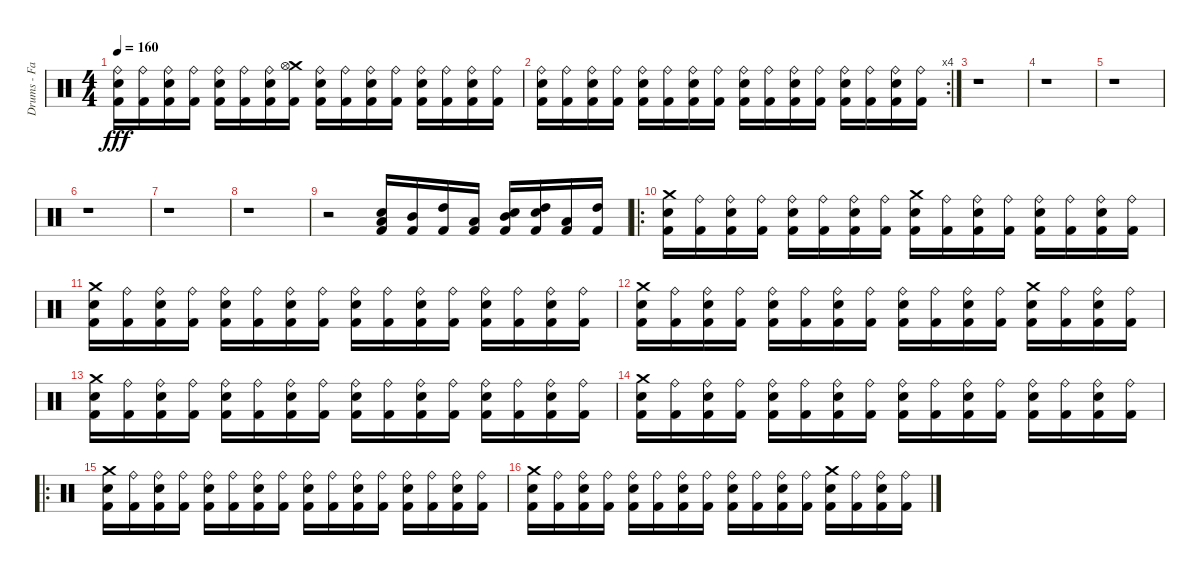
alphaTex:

\track ("Drums - Faust" "Drums - Fa") {instrument percussion}
\staff {score}
\articulation defaults
\ts (4 4)
\tempo 160
\clef neutral
\ks c
("Ride (bell)" "Electric Snare (hit)" "Kick (hit) 2").16{dy fff} ("Ride (bell)" "Kick (hit) 2").16 ("Ride (bell)" "Electric Snare (hit)" "Kick (hit) 2").16 ("Ride (bell)" "Kick (hit) 2").16 ("Ride (bell)" "Electric Snare (hit)" "Kick (hit) 2").16 ("Ride (bell)" "Kick (hit) 2").16 ("Ride (bell)" "Electric Snare (hit)" "Kick (hit) 2").16 ("Crash medium (hit)" "Hi-Hat (open)" "Kick (hit) 2").16 ("Ride (bell)" "Electric Snare (hit)" "Kick (hit) 2").16 ("Ride (bell)" "Kick (hit) 2").16 ("Ride (bell)" "Electric Snare (hit)" "Kick (hit) 2").16 ("Ride (bell)" "Kick (hit) 2").16 ("Ride (bell)" "Electric Snare (hit)" "Kick (hit) 2").16 ("Ride (bell)" "Kick (hit) 2").16 ("Ride (bell)" "Electric Snare (hit)" "Kick (hit) 2").16 ("Ride (bell)" "Kick (hit) 2").16 |
\rc 4
("Ride (bell)" "Electric Snare (hit)" "Kick (hit) 2").16 ("Ride (bell)" "Kick (hit) 2").16 ("Ride (bell)" "Electric Snare (hit)" "Kick (hit) 2").16 ("Ride (bell)" "Kick (hit) 2").16 ("Ride (bell)" "Electric Snare (hit)" "Kick (hit) 2").16 ("Ride (bell)" "Kick (hit) 2").16 ("Ride (bell)" "Electric Snare (hit)" "Kick (hit) 2").16 ("Ride (bell)" "Kick (hit) 2").16 ("Ride (bell)" "Electric Snare (hit)" "Kick (hit) 2").16 ("Ride (bell)" "Kick (hit) 2").16 ("Ride (bell)" "Electric Snare (hit)" "Kick (hit) 2").16 ("Ride (bell)" "Kick (hit) 2").16 ("Ride (bell)" "Electric Snare (hit)" "Kick (hit) 2").16 ("Ride (bell)" "Kick (hit) 2").16 ("Ride (bell)" "Electric Snare (hit)" "Kick (hit) 2").16 ("Ride (bell)" "Kick (hit) 2").16 |
r.1 |
r.1 |
r.1 |
r.1 |
r.1 |
r.1 |
r.2 ("Low Tom (hit)" "Electric Snare (hit)" "Kick (hit) 2").16 ("Mid Tom (hit)" "Kick (hit) 2").16 ("High Tom (hit)" "Kick (hit) 2").16 ("Low Tom (hit)" "Kick (hit) 2").16 ("Mid Tom (hit)" "Electric Snare (hit)" "Kick (hit) 2").16 ("High Tom (hit)" "Electric Snare (hit)" "Kick (hit) 2").16 ("Low Tom (hit)" "Kick (hit) 2").16 ("High Tom (hit)" "Kick (hit) 2").16 |
\ro
("Electric Snare (hit)" "Crash medium (hit)" "Kick (hit) 2").16 ("Ride (bell)" "Kick (hit) 2").16 ("Electric Snare (hit)" "Ride (bell)" "Kick (hit) 2").16 ("Ride (bell)" "Kick (hit) 2").16 ("Electric Snare (hit)" "Ride (bell)" "Kick (hit) 2").16 ("Ride (bell)" "Kick (hit) 2").16 ("Electric Snare (hit)" "Ride (bell)" "Kick (hit) 2").16 ("Ride (bell)" "Kick (hit) 2").16 ("Electric Snare (hit)" "Crash medium (hit)" "Kick (hit) 2").16 ("Ride (bell)" "Kick (hit) 2").16 ("Electric Snare (hit)" "Ride (bell)" "Kick (hit) 2").16 ("Ride (bell)" "Kick (hit) 2").16 ("Electric Snare (hit)" "Ride (bell)" "Kick (hit) 2").16 ("Ride (bell)" "Kick (hit) 2").16 ("Electric Snare (hit)" "Ride (bell)" "Kick (hit) 2").16 ("Ride (bell)" "Kick (hit) 2").16 |
("Electric Snare (hit)" "Crash medium (hit)" "Kick (hit) 2").16 ("Ride (bell)" "Kick (hit) 2").16 ("Electric Snare (hit)" "Ride (bell)" "Kick (hit) 2").16 ("Ride (bell)" "Kick (hit) 2").16 ("Electric Snare (hit)" "Ride (bell)" "Kick (hit) 2").16 ("Ride (bell)" "Kick (hit) 2").16 ("Electric Snare (hit)" "Ride (bell)" "Kick (hit) 2").16 ("Ride (bell)" "Kick (hit) 2").16 ("Electric Snare (hit)" "Ride (bell)" "Kick (hit) 2").16 ("Ride (bell)" "Kick (hit) 2").16 ("Electric Snare (hit)" "Ride (bell)" "Kick (hit) 2").16 ("Ride (bell)" "Kick (hit) 2").16 ("Electric Snare (hit)" "Ride (bell)" "Kick (hit) 2").16 ("Ride (bell)" "Kick (hit) 2").16 ("Electric Snare (hit)" "Ride (bell)" "Kick (hit) 2").16 ("Ride (bell)" "Kick (hit) 2").16 |
("Electric Snare (hit)" "Crash medium (hit)" "Kick (hit) 2").16 ("Ride (bell)" "Kick (hit) 2").16 ("Electric Snare (hit)" "Ride (bell)" "Kick (hit) 2").16 ("Ride (bell)" "Kick (hit) 2").16 ("Electric Snare (hit)" "Ride (bell)" "Kick (hit) 2").16 ("Ride (bell)" "Kick (hit) 2").16 ("Electric Snare (hit)" "Ride (bell)" "Kick (hit) 2").16 ("Ride (bell)" "Kick (hit) 2").16 ("Electric Snare (hit)" "Ride (bell)" "Kick (hit) 2").16 ("Ride (bell)" "Kick (hit) 2").16 ("Electric Snare (hit)" "Ride (bell)" "Kick (hit) 2").16 ("Ride (bell)" "Kick (hit) 2").16 ("Electric Snare (hit)" "Crash medium (hit)" "Kick (hit) 2").16 ("Ride (bell)" "Kick (hit) 2").16 ("Electric Snare (hit)" "Ride (bell)" "Kick (hit) 2").16 ("Ride (bell)" "Kick (hit) 2").16 |
("Electric Snare (hit)" "Crash medium (hit)" "Kick (hit) 2").16 ("Ride (bell)" "Kick (hit) 2").16 ("Electric Snare (hit)" "Ride (bell)" "Kick (hit) 2").16 ("Ride (bell)" "Kick (hit) 2").16 ("Electric Snare (hit)" "Ride (bell)" "Kick (hit) 2").16 ("Ride (bell)" "Kick (hit) 2").16 ("Electric Snare (hit)" "Ride (bell)" "Kick (hit) 2").16 ("Ride (bell)" "Kick (hit) 2").16 ("Electric Snare (hit)" "Ride (bell)" "Kick (hit) 2").16 ("Ride (bell)" "Kick (hit) 2").16 ("Electric Snare (hit)" "Ride (bell)" "Kick (hit) 2").16 ("Ride (bell)" "Kick (hit) 2").16 ("Electric Snare (hit)" "Ride (bell)" "Kick (hit) 2").16 ("Ride (bell)" "Kick (hit) 2").16 ("Electric Snare (hit)" "Ride (bell)" "Kick (hit) 2").16 ("Ride (bell)" "Kick (hit) 2").16 |
("Electric Snare (hit)" "Crash medium (hit)" "Kick (hit) 2").16 ("Ride (bell)" "Kick (hit) 2").16 ("Electric Snare (hit)" "Ride (bell)" "Kick (hit) 2").16 ("Ride (bell)" "Kick (hit) 2").16 ("Electric Snare (hit)" "Ride (bell)" "Kick (hit) 2").16 ("Ride (bell)" "Kick (hit) 2").16 ("Electric Snare (hit)" "Ride (bell)" "Kick (hit) 2").16 ("Ride (bell)" "Kick (hit) 2").16 ("Electric Snare (hit)" "Ride (bell)" "Kick (hit) 2").16 ("Ride (bell)" "Kick (hit) 2").16 ("Electric Snare (hit)" "Ride (bell)" "Kick (hit) 2").16 ("Ride (bell)" "Kick (hit) 2").16 ("Electric Snare (hit)" "Ride (bell)" "Kick (hit) 2").16 ("Ride (bell)" "Kick (hit) 2").16 ("Electric Snare (hit)" "Ride (bell)" "Kick (hit) 2").16 ("Ride (bell)" "Kick (hit) 2").16 |
\ro
("Electric Snare (hit)" "Crash medium (hit)" "Kick (hit) 2").16 ("Ride (bell)" "Kick (hit) 2").16 ("Ride (bell)" "Electric Snare (hit)" "Kick (hit) 2").16 ("Ride (bell)" "Kick (hit) 2").16 ("Ride (bell)" "Electric Snare (hit)" "Kick (hit) 2").16 ("Ride (bell)" "Kick (hit) 2").16 ("Ride (bell)" "Electric Snare (hit)" "Kick (hit) 2").16 ("Ride (bell)" "Kick (hit) 2").16 ("Ride (bell)" "Electric Snare (hit)" "Kick (hit) 2").16 ("Ride (bell)" "Kick (hit) 2").16 ("Ride (bell)" "Electric Snare (hit)" "Kick (hit) 2").16 ("Ride (bell)" "Kick (hit) 2").16 ("Ride (bell)" "Electric Snare (hit)" "Kick (hit) 2").16 ("Ride (bell)" "Kick (hit) 2").16 ("Ride (bell)" "Electric Snare (hit)" "Kick (hit) 2").16 ("Ride (bell)" "Kick (hit) 2").16 |
("Electric Snare (hit)" "Crash medium (hit)" "Kick (hit) 2").16 ("Ride (bell)" "Kick (hit) 2").16 ("Ride (bell)" "Electric Snare (hit)" "Kick (hit) 2").16 ("Ride (bell)" "Kick (hit) 2").16 ("Ride (bell)" "Electric Snare (hit)" "Kick (hit) 2").16 ("Ride (bell)" "Kick (hit) 2").16 ("Ride (bell)" "Electric Snare (hit)" "Kick (hit) 2").16 ("Ride (bell)" "Kick (hit) 2").16 ("Ride (bell)" "Electric Snare (hit)" "Kick (hit) 2").16 ("Ride (bell)" "Kick (hit) 2").16 ("Ride (bell)" "Electric Snare (hit)" "Kick (hit) 2").16 ("Ride (bell)" "Kick (hit) 2").16 ("Electric Snare (hit)" "Crash medium (hit)" "Kick (hit) 2").16 ("Ride (bell)" "Kick (hit) 2").16 ("Ride (bell)" "Electric Snare (hit)" "Kick (hit) 2").16 ("Ride (bell)" "Kick (hit) 2").16
